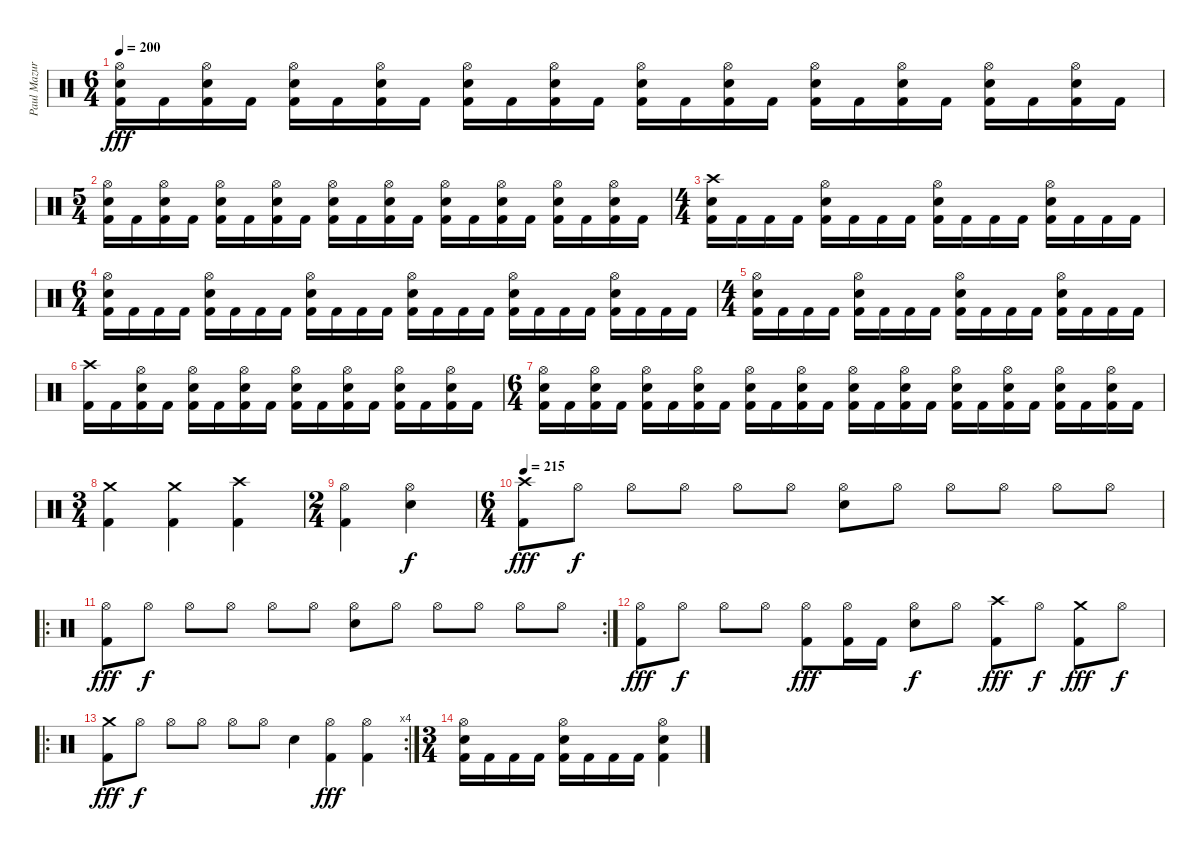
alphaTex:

\track ("Paul Mazurkiewicz" "Paul Mazur") {instrument percussion}
\staff {score}
\articulation defaults
\ts (6 4)
\tempo 200
\clef neutral
\ks c
("Hi-Hat (open)" "Electric Snare (hit)" "Kick (hit) 2").16{dy fff} "Kick (hit) 2".16 ("Hi-Hat (open)" "Electric Snare (hit)" "Kick (hit) 2").16 "Kick (hit) 2".16 ("Hi-Hat (open)" "Electric Snare (hit)" "Kick (hit) 2").16 "Kick (hit) 2".16 ("Hi-Hat (open)" "Electric Snare (hit)" "Kick (hit) 2").16 "Kick (hit) 2".16 ("Hi-Hat (open)" "Electric Snare (hit)" "Kick (hit) 2").16 "Kick (hit) 2".16 ("Hi-Hat (open)" "Electric Snare (hit)" "Kick (hit) 2").16 "Kick (hit) 2".16 ("Hi-Hat (open)" "Electric Snare (hit)" "Kick (hit) 2").16 "Kick (hit) 2".16 ("Hi-Hat (open)" "Electric Snare (hit)" "Kick (hit) 2").16 "Kick (hit) 2".16 ("Hi-Hat (open)" "Electric Snare (hit)" "Kick (hit) 2").16 "Kick (hit) 2".16 ("Hi-Hat (open)" "Electric Snare (hit)" "Kick (hit) 2").16 "Kick (hit) 2".16 ("Hi-Hat (open)" "Electric Snare (hit)" "Kick (hit) 2").16 "Kick (hit) 2".16 ("Hi-Hat (open)" "Electric Snare (hit)" "Kick (hit) 2").16 "Kick (hit) 2".16 |
\ts (5 4)
("Hi-Hat (open)" "Electric Snare (hit)" "Kick (hit) 2").16 "Kick (hit) 2".16 ("Hi-Hat (open)" "Electric Snare (hit)" "Kick (hit) 2").16 "Kick (hit) 2".16 ("Hi-Hat (open)" "Electric Snare (hit)" "Kick (hit) 2").16 "Kick (hit) 2".16 ("Hi-Hat (open)" "Electric Snare (hit)" "Kick (hit) 2").16 "Kick (hit) 2".16 ("Hi-Hat (open)" "Electric Snare (hit)" "Kick (hit) 2").16 "Kick (hit) 2".16 ("Hi-Hat (open)" "Electric Snare (hit)" "Kick (hit) 2").16 "Kick (hit) 2".16 ("Hi-Hat (open)" "Electric Snare (hit)" "Kick (hit) 2").16 "Kick (hit) 2".16 ("Hi-Hat (open)" "Electric Snare (hit)" "Kick (hit) 2").16 "Kick (hit) 2".16 ("Hi-Hat (open)" "Electric Snare (hit)" "Kick (hit) 2").16 "Kick (hit) 2".16 ("Hi-Hat (open)" "Electric Snare (hit)" "Kick (hit) 2").16 "Kick (hit) 2".16 |
\ts (4 4)
("Crash high (hit)" "Electric Snare (hit)" "Kick (hit) 2").16 "Kick (hit) 2".16 "Kick (hit) 2".16 "Kick (hit) 2".16 ("Hi-Hat (open)" "Electric Snare (hit)" "Kick (hit) 2").16 "Kick (hit) 2".16 "Kick (hit) 2".16 "Kick (hit) 2".16 ("Hi-Hat (open)" "Electric Snare (hit)" "Kick (hit) 2").16 "Kick (hit) 2".16 "Kick (hit) 2".16 "Kick (hit) 2".16 ("Hi-Hat (open)" "Electric Snare (hit)" "Kick (hit) 2").16 "Kick (hit) 2".16 "Kick (hit) 2".16 "Kick (hit) 2".16 |
\ts (6 4)
("Hi-Hat (open)" "Electric Snare (hit)" "Kick (hit) 2").16 "Kick (hit) 2".16 "Kick (hit) 2".16 "Kick (hit) 2".16 ("Hi-Hat (open)" "Electric Snare (hit)" "Kick (hit) 2").16 "Kick (hit) 2".16 "Kick (hit) 2".16 "Kick (hit) 2".16 ("Hi-Hat (open)" "Electric Snare (hit)" "Kick (hit) 2").16 "Kick (hit) 2".16 "Kick (hit) 2".16 "Kick (hit) 2".16 ("Hi-Hat (open)" "Electric Snare (hit)" "Kick (hit) 2").16 "Kick (hit) 2".16 "Kick (hit) 2".16 "Kick (hit) 2".16 ("Hi-Hat (open)" "Electric Snare (hit)" "Kick (hit) 2").16 "Kick (hit) 2".16 "Kick (hit) 2".16 "Kick (hit) 2".16 ("Hi-Hat (open)" "Electric Snare (hit)" "Kick (hit) 2").16 "Kick (hit) 2".16 "Kick (hit) 2".16 "Kick (hit) 2".16 |
\ts (4 4)
("Hi-Hat (open)" "Electric Snare (hit)" "Kick (hit) 2").16 "Kick (hit) 2".16 "Kick (hit) 2".16 "Kick (hit) 2".16 ("Hi-Hat (open)" "Electric Snare (hit)" "Kick (hit) 2").16 "Kick (hit) 2".16 "Kick (hit) 2".16 "Kick (hit) 2".16 ("Hi-Hat (open)" "Electric Snare (hit)" "Kick (hit) 2").16 "Kick (hit) 2".16 "Kick (hit) 2".16 "Kick (hit) 2".16 ("Hi-Hat (open)" "Electric Snare (hit)" "Kick (hit) 2").16 "Kick (hit) 2".16 "Kick (hit) 2".16 "Kick (hit) 2".16 |
("Crash high (hit)" "Kick (hit) 2").16 "Kick (hit) 2".16 ("Hi-Hat (open)" "Electric Snare (hit)" "Kick (hit) 2").16 "Kick (hit) 2".16 ("Hi-Hat (open)" "Electric Snare (hit)" "Kick (hit) 2").16 "Kick (hit) 2".16 ("Hi-Hat (open)" "Electric Snare (hit)" "Kick (hit) 2").16 "Kick (hit) 2".16 ("Hi-Hat (open)" "Electric Snare (hit)" "Kick (hit) 2").16 "Kick (hit) 2".16 ("Hi-Hat (open)" "Electric Snare (hit)" "Kick (hit) 2").16 "Kick (hit) 2".16 ("Hi-Hat (open)" "Electric Snare (hit)" "Kick (hit) 2").16 "Kick (hit) 2".16 ("Hi-Hat (open)" "Electric Snare (hit)" "Kick (hit) 2").16 "Kick (hit) 2".16 |
\ts (6 4)
("Hi-Hat (open)" "Electric Snare (hit)" "Kick (hit) 2").16 "Kick (hit) 2".16 ("Hi-Hat (open)" "Electric Snare (hit)" "Kick (hit) 2").16 "Kick (hit) 2".16 ("Hi-Hat (open)" "Electric Snare (hit)" "Kick (hit) 2").16 "Kick (hit) 2".16 ("Hi-Hat (open)" "Electric Snare (hit)" "Kick (hit) 2").16 "Kick (hit) 2".16 ("Hi-Hat (open)" "Electric Snare (hit)" "Kick (hit) 2").16 "Kick (hit) 2".16 ("Hi-Hat (open)" "Electric Snare (hit)" "Kick (hit) 2").16 "Kick (hit) 2".16 ("Hi-Hat (open)" "Electric Snare (hit)" "Kick (hit) 2").16 "Kick (hit) 2".16 ("Hi-Hat (open)" "Electric Snare (hit)" "Kick (hit) 2").16 "Kick (hit) 2".16 ("Hi-Hat (open)" "Electric Snare (hit)" "Kick (hit) 2").16 "Kick (hit) 2".16 ("Hi-Hat (open)" "Electric Snare (hit)" "Kick (hit) 2").16 "Kick (hit) 2".16 ("Hi-Hat (open)" "Electric Snare (hit)" "Kick (hit) 2").16 "Kick (hit) 2".16 ("Hi-Hat (open)" "Electric Snare (hit)" "Kick (hit) 2").16 "Kick (hit) 2".16 |
\ts (3 4)
("Crash medium (hit)" "Kick (hit) 2").4 ("Crash medium (hit)" "Kick (hit) 2").4 ("Crash high (hit)" "Kick (hit) 2").4 |
\ts (2 4)
("Hi-Hat (open)" "Kick (hit) 2").4 ("Hi-Hat (open)" "Electric Snare (hit)").4{dy f} |
\ts (6 4)
\tempo 215
("Crash high (hit)" "Kick (hit) 2").8{dy fff} "Hi-Hat (open)".8{dy f} "Hi-Hat (open)".8 "Hi-Hat (open)".8 "Hi-Hat (open)".8 "Hi-Hat (open)".8 ("Hi-Hat (open)" "Electric Snare (hit)").8 "Hi-Hat (open)".8 "Hi-Hat (open)".8 "Hi-Hat (open)".8 "Hi-Hat (open)".8 "Hi-Hat (open)".8 |
\ro
\rc 2
("Hi-Hat (open)" "Kick (hit) 2").8{dy fff} "Hi-Hat (open)".8{dy f} "Hi-Hat (open)".8 "Hi-Hat (open)".8 "Hi-Hat (open)".8 "Hi-Hat (open)".8 ("Hi-Hat (open)" "Electric Snare (hit)").8 "Hi-Hat (open)".8 "Hi-Hat (open)".8 "Hi-Hat (open)".8 "Hi-Hat (open)".8 "Hi-Hat (open)".8 |
("Hi-Hat (open)" "Kick (hit) 2").8{dy fff} "Hi-Hat (open)".8{dy f} "Hi-Hat (open)".8 "Hi-Hat (open)".8 ("Hi-Hat (open)" "Kick (hit) 2").8{dy fff} ("Hi-Hat (open)" "Kick (hit) 2").16 "Kick (hit) 2".16 ("Hi-Hat (open)" "Electric Snare (hit)").8{dy f} "Hi-Hat (open)".8 ("Crash high (hit)" "Kick (hit) 2").8{dy fff} "Hi-Hat (open)".8{dy f} ("Crash medium (hit)" "Kick (hit) 2").8{dy fff} "Hi-Hat (open)".8{dy f} |
\ro
\rc 4
("Crash medium (hit)" "Kick (hit) 2").8{dy fff} "Hi-Hat (open)".8{dy f} "Hi-Hat (open)".8 "Hi-Hat (open)".8 "Hi-Hat (open)".8 "Hi-Hat (open)".8 "Electric Snare (hit)".4 ("Hi-Hat (open)" "Kick (hit) 2").4{dy fff} ("Hi-Hat (open)" "Kick (hit) 2").4 |
\ts (3 4)
("Hi-Hat (open)" "Electric Snare (hit)" "Kick (hit) 2").16 "Kick (hit) 2".16 "Kick (hit) 2".16 "Kick (hit) 2".16 ("Hi-Hat (open)" "Electric Snare (hit)" "Kick (hit) 2").16 "Kick (hit) 2".16 "Kick (hit) 2".16 "Kick (hit) 2".16 ("Hi-Hat (open)" "Electric Snare (hit)" "Kick (hit) 2").4
